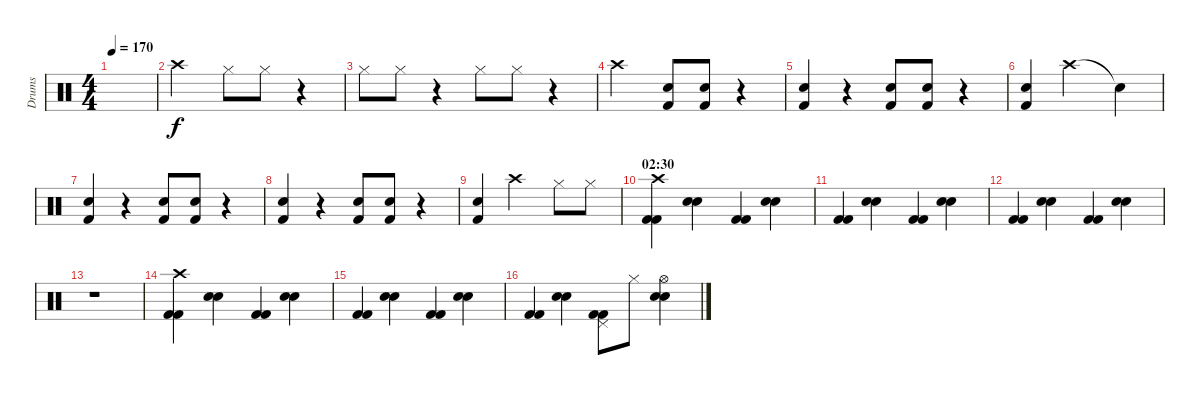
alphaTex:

\track ("Drums" "Drums") {instrument percussion}
\staff {score}
\articulation defaults
\ts (4 4)
\tempo 170
\clef neutral
\ks c
|
"Crash high (hit)".2 "Hi-Hat (closed)".8 "Hi-Hat (closed)".8 r.4 |
"Hi-Hat (closed)".8 "Hi-Hat (closed)".8 r.4 "Hi-Hat (closed)".8 "Hi-Hat (closed)".8 r.4 |
"Crash high (hit)".2 ("Snare (hit) 2" "Kick (hit) 2").8 ("Snare (hit) 2" "Kick (hit) 2").8 r.4 |
("Snare (hit) 2" "Kick (hit) 2").4 r.4 ("Snare (hit) 2" "Kick (hit) 2").8 ("Snare (hit) 2" "Kick (hit) 2").8 r.4 |
("Snare (hit) 2" "Kick (hit) 2").4 "Crash high (hit)".2 "Snare (hit)"{t}.4 |
("Snare (hit) 2" "Kick (hit) 2").4 r.4 ("Snare (hit) 2" "Kick (hit) 2").8 ("Snare (hit) 2" "Kick (hit) 2").8 r.4 |
("Snare (hit) 2" "Kick (hit) 2").4 r.4 ("Snare (hit) 2" "Kick (hit) 2").8 ("Snare (hit) 2" "Kick (hit) 2").8 r.4 |
("Snare (hit) 2" "Kick (hit) 2").4 "Crash high (hit)".2 "Hi-Hat (closed)".8 "Hi-Hat (closed)".8 |
\section ("" "02:30")
("Kick (hit) 2" "Kick (hit) 2" "Crash high (hit)").4 ("Snare (hit) 2" "Hand Clap (hit)").4 ("Kick (hit) 2" "Kick (hit) 2").4 ("Snare (hit) 2" "Hand Clap (hit)").4 |
("Kick (hit) 2" "Kick (hit) 2").4 ("Snare (hit) 2" "Hand Clap (hit)").4 ("Kick (hit) 2" "Kick (hit) 2").4 ("Snare (hit) 2" "Hand Clap (hit)").4 |
("Kick (hit) 2" "Kick (hit) 2").4 ("Snare (hit) 2" "Hand Clap (hit)").4 ("Kick (hit) 2" "Kick (hit) 2").4 ("Snare (hit) 2" "Hand Clap (hit)").4 |
r.1 |
("Kick (hit) 2" "Kick (hit) 2" "Crash high (hit)").4 ("Snare (hit) 2" "Hand Clap (hit)").4 ("Kick (hit) 2" "Kick (hit) 2").4 ("Snare (hit) 2" "Hand Clap (hit)").4 |
("Kick (hit) 2" "Kick (hit) 2").4 ("Snare (hit) 2" "Hand Clap (hit)").4 ("Kick (hit) 2" "Kick (hit) 2").4 ("Snare (hit) 2" "Hand Clap (hit)").4 |
("Kick (hit) 2" "Kick (hit) 2").4 ("Snare (hit) 2" "Hand Clap (hit)").4 ("Kick (hit) 2" "Kick (hit) 2" "Pedal Hi-Hat (hit)").8 "Hi-Hat (closed)".8 ("Snare (hit) 2" "Hand Clap (hit)" "Hi-Hat (open)").4
